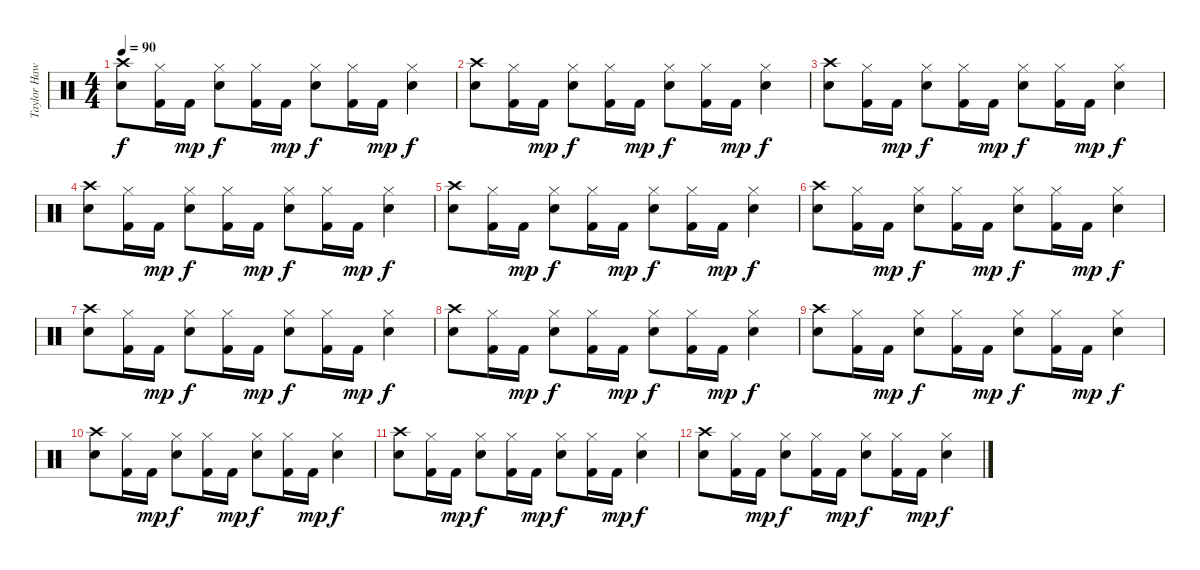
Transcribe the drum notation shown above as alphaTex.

\track ("Taylor Hawkins" "Taylor Haw") {instrument percussion}
\staff {score}
\articulation defaults
\ts (4 4)
\tempo 90
\clef neutral
\ks c
("Crash high (hit)" "Electric Snare (hit)").8{dy f} ("Hi-Hat (closed)" "Kick (hit) 2").16 "Kick (hit) 2".16{dy mp} ("Hi-Hat (closed)" "Electric Snare (hit)").8{dy f} ("Hi-Hat (closed)" "Kick (hit) 2").16 "Kick (hit) 2".16{dy mp} ("Hi-Hat (closed)" "Electric Snare (hit)").8{dy f} ("Hi-Hat (closed)" "Kick (hit) 2").16 "Kick (hit) 2".16{dy mp} ("Hi-Hat (closed)" "Electric Snare (hit)").4{dy f} |
("Crash high (hit)" "Electric Snare (hit)").8 ("Hi-Hat (closed)" "Kick (hit) 2").16 "Kick (hit) 2".16{dy mp} ("Hi-Hat (closed)" "Electric Snare (hit)").8{dy f} ("Hi-Hat (closed)" "Kick (hit) 2").16 "Kick (hit) 2".16{dy mp} ("Hi-Hat (closed)" "Electric Snare (hit)").8{dy f} ("Hi-Hat (closed)" "Kick (hit) 2").16 "Kick (hit) 2".16{dy mp} ("Hi-Hat (closed)" "Electric Snare (hit)").4{dy f} |
("Crash high (hit)" "Electric Snare (hit)").8 ("Hi-Hat (closed)" "Kick (hit) 2").16 "Kick (hit) 2".16{dy mp} ("Hi-Hat (closed)" "Electric Snare (hit)").8{dy f} ("Hi-Hat (closed)" "Kick (hit) 2").16 "Kick (hit) 2".16{dy mp} ("Hi-Hat (closed)" "Electric Snare (hit)").8{dy f} ("Hi-Hat (closed)" "Kick (hit) 2").16 "Kick (hit) 2".16{dy mp} ("Hi-Hat (closed)" "Electric Snare (hit)").4{dy f} |
("Crash high (hit)" "Electric Snare (hit)").8 ("Hi-Hat (closed)" "Kick (hit) 2").16 "Kick (hit) 2".16{dy mp} ("Hi-Hat (closed)" "Electric Snare (hit)").8{dy f} ("Hi-Hat (closed)" "Kick (hit) 2").16 "Kick (hit) 2".16{dy mp} ("Hi-Hat (closed)" "Electric Snare (hit)").8{dy f} ("Hi-Hat (closed)" "Kick (hit) 2").16 "Kick (hit) 2".16{dy mp} ("Hi-Hat (closed)" "Electric Snare (hit)").4{dy f} |
("Crash high (hit)" "Electric Snare (hit)").8 ("Hi-Hat (closed)" "Kick (hit) 2").16 "Kick (hit) 2".16{dy mp} ("Hi-Hat (closed)" "Electric Snare (hit)").8{dy f} ("Hi-Hat (closed)" "Kick (hit) 2").16 "Kick (hit) 2".16{dy mp} ("Hi-Hat (closed)" "Electric Snare (hit)").8{dy f} ("Hi-Hat (closed)" "Kick (hit) 2").16 "Kick (hit) 2".16{dy mp} ("Hi-Hat (closed)" "Electric Snare (hit)").4{dy f} |
("Crash high (hit)" "Electric Snare (hit)").8 ("Hi-Hat (closed)" "Kick (hit) 2").16 "Kick (hit) 2".16{dy mp} ("Hi-Hat (closed)" "Electric Snare (hit)").8{dy f} ("Hi-Hat (closed)" "Kick (hit) 2").16 "Kick (hit) 2".16{dy mp} ("Hi-Hat (closed)" "Electric Snare (hit)").8{dy f} ("Hi-Hat (closed)" "Kick (hit) 2").16 "Kick (hit) 2".16{dy mp} ("Hi-Hat (closed)" "Electric Snare (hit)").4{dy f} |
("Crash high (hit)" "Electric Snare (hit)").8 ("Hi-Hat (closed)" "Kick (hit) 2").16 "Kick (hit) 2".16{dy mp} ("Hi-Hat (closed)" "Electric Snare (hit)").8{dy f} ("Hi-Hat (closed)" "Kick (hit) 2").16 "Kick (hit) 2".16{dy mp} ("Hi-Hat (closed)" "Electric Snare (hit)").8{dy f} ("Hi-Hat (closed)" "Kick (hit) 2").16 "Kick (hit) 2".16{dy mp} ("Hi-Hat (closed)" "Electric Snare (hit)").4{dy f} |
("Crash high (hit)" "Electric Snare (hit)").8 ("Hi-Hat (closed)" "Kick (hit) 2").16 "Kick (hit) 2".16{dy mp} ("Hi-Hat (closed)" "Electric Snare (hit)").8{dy f} ("Hi-Hat (closed)" "Kick (hit) 2").16 "Kick (hit) 2".16{dy mp} ("Hi-Hat (closed)" "Electric Snare (hit)").8{dy f} ("Hi-Hat (closed)" "Kick (hit) 2").16 "Kick (hit) 2".16{dy mp} ("Hi-Hat (closed)" "Electric Snare (hit)").4{dy f} |
("Crash high (hit)" "Electric Snare (hit)").8 ("Hi-Hat (closed)" "Kick (hit) 2").16 "Kick (hit) 2".16{dy mp} ("Hi-Hat (closed)" "Electric Snare (hit)").8{dy f} ("Hi-Hat (closed)" "Kick (hit) 2").16 "Kick (hit) 2".16{dy mp} ("Hi-Hat (closed)" "Electric Snare (hit)").8{dy f} ("Hi-Hat (closed)" "Kick (hit) 2").16 "Kick (hit) 2".16{dy mp} ("Hi-Hat (closed)" "Electric Snare (hit)").4{dy f} |
("Crash high (hit)" "Electric Snare (hit)").8 ("Hi-Hat (closed)" "Kick (hit) 2").16 "Kick (hit) 2".16{dy mp} ("Hi-Hat (closed)" "Electric Snare (hit)").8{dy f} ("Hi-Hat (closed)" "Kick (hit) 2").16 "Kick (hit) 2".16{dy mp} ("Hi-Hat (closed)" "Electric Snare (hit)").8{dy f} ("Hi-Hat (closed)" "Kick (hit) 2").16 "Kick (hit) 2".16{dy mp} ("Hi-Hat (closed)" "Electric Snare (hit)").4{dy f} |
("Crash high (hit)" "Electric Snare (hit)").8 ("Hi-Hat (closed)" "Kick (hit) 2").16 "Kick (hit) 2".16{dy mp} ("Hi-Hat (closed)" "Electric Snare (hit)").8{dy f} ("Hi-Hat (closed)" "Kick (hit) 2").16 "Kick (hit) 2".16{dy mp} ("Hi-Hat (closed)" "Electric Snare (hit)").8{dy f} ("Hi-Hat (closed)" "Kick (hit) 2").16 "Kick (hit) 2".16{dy mp} ("Hi-Hat (closed)" "Electric Snare (hit)").4{dy f} |
("Crash high (hit)" "Electric Snare (hit)").8 ("Hi-Hat (closed)" "Kick (hit) 2").16 "Kick (hit) 2".16{dy mp} ("Hi-Hat (closed)" "Electric Snare (hit)").8{dy f} ("Hi-Hat (closed)" "Kick (hit) 2").16 "Kick (hit) 2".16{dy mp} ("Hi-Hat (closed)" "Electric Snare (hit)").8{dy f} ("Hi-Hat (closed)" "Kick (hit) 2").16 "Kick (hit) 2".16{dy mp} ("Hi-Hat (closed)" "Electric Snare (hit)").4{dy f}
